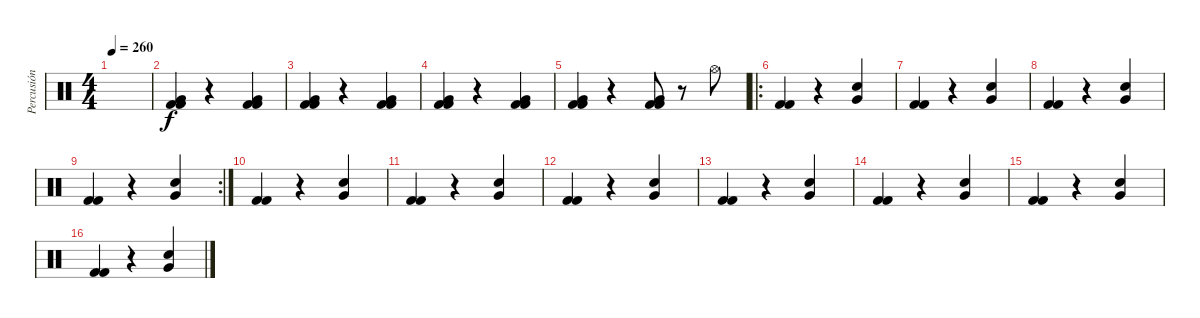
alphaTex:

\track ("Percusión" "Percusión") {instrument percussion}
\staff {score}
\articulation defaults
\ts (4 4)
\tempo 260
\clef neutral
\ks c
|
("Very Low Tom (hit)" "Kick (hit) 2" "Kick (hit) 2").4 r.4 ("Very Low Tom (hit)" "Kick (hit) 2" "Kick (hit) 2").4 |
("Very Low Tom (hit)" "Kick (hit) 2" "Kick (hit) 2").4 r.4 ("Very Low Tom (hit)" "Kick (hit) 2" "Kick (hit) 2").4 |
("Very Low Tom (hit)" "Kick (hit) 2" "Kick (hit) 2").4 r.4 ("Very Low Tom (hit)" "Kick (hit) 2" "Kick (hit) 2").4 |
("Very Low Tom (hit)" "Kick (hit) 2" "Kick (hit) 2").4 r.4 ("Very Low Tom (hit)" "Kick (hit) 2" "Kick (hit) 2").8 r.8 "Hi-Hat (open)".8 |
\ro
("Kick (hit) 2" "Kick (hit) 2").4 r.4 ("Very Low Tom (hit)" "Electric Snare (hit)").4 |
("Kick (hit) 2" "Kick (hit) 2").4 r.4 ("Very Low Tom (hit)" "Electric Snare (hit)").4 |
("Kick (hit) 2" "Kick (hit) 2").4 r.4 ("Very Low Tom (hit)" "Electric Snare (hit)").4 |
\rc 2
("Kick (hit) 2" "Kick (hit) 2").4 r.4 ("Very Low Tom (hit)" "Electric Snare (hit)").4 |
("Kick (hit) 2" "Kick (hit) 2").4 r.4 ("Very Low Tom (hit)" "Electric Snare (hit)").4 |
("Kick (hit) 2" "Kick (hit) 2").4 r.4 ("Very Low Tom (hit)" "Electric Snare (hit)").4 |
("Kick (hit) 2" "Kick (hit) 2").4 r.4 ("Very Low Tom (hit)" "Electric Snare (hit)").4 |
("Kick (hit) 2" "Kick (hit) 2").4 r.4 ("Very Low Tom (hit)" "Electric Snare (hit)").4 |
("Kick (hit) 2" "Kick (hit) 2").4 r.4 ("Very Low Tom (hit)" "Electric Snare (hit)").4 |
("Kick (hit) 2" "Kick (hit) 2").4 r.4 ("Very Low Tom (hit)" "Electric Snare (hit)").4 |
("Kick (hit) 2" "Kick (hit) 2").4 r.4 ("Very Low Tom (hit)" "Electric Snare (hit)").4
